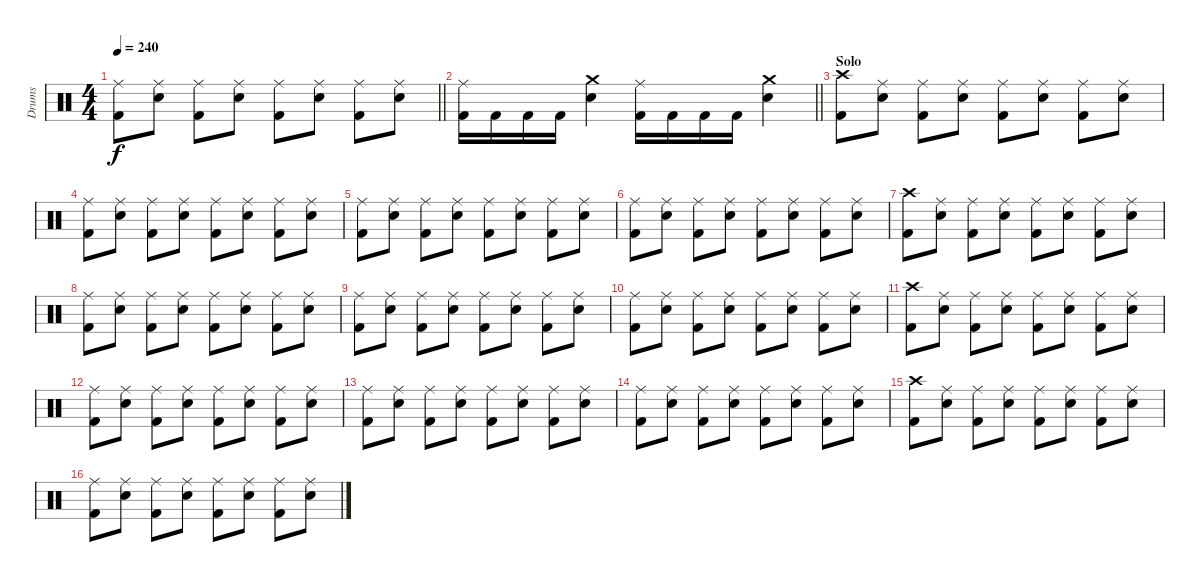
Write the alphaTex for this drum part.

\track ("Drums" "Drums") {instrument percussion}
\staff {score}
\articulation defaults
\ts (4 4)
\tempo 240
\clef neutral
\barLineRight lightlight
\ks c
("Ride (middle)" "Kick (hit) 2").8{dy f} ("Ride (middle)" "Snare (hit) 2").8 ("Ride (middle)" "Kick (hit) 2").8 ("Ride (middle)" "Snare (hit) 2").8 ("Ride (middle)" "Kick (hit) 2").8 ("Ride (middle)" "Snare (hit) 2").8 ("Ride (middle)" "Kick (hit) 2").8 ("Ride (middle)" "Snare (hit) 2").8 |
\section ("" "")
\barLineRight lightlight
("Ride (middle)" "Kick (hit) 2").16 "Kick (hit) 2".16 "Kick (hit) 2".16 "Kick (hit) 2".16 ("Crash medium (hit)" "Snare (hit) 2").4 ("Ride (middle)" "Kick (hit) 2").16 "Kick (hit) 2".16 "Kick (hit) 2".16 "Kick (hit) 2".16 ("Crash medium (hit)" "Snare (hit) 2").4 |
\section ("" "Solo")
("Crash high (hit)" "Kick (hit) 2").8 ("Ride (middle)" "Snare (hit) 2").8 ("Ride (middle)" "Kick (hit) 2").8 ("Ride (middle)" "Snare (hit) 2").8 ("Ride (middle)" "Kick (hit) 2").8 ("Ride (middle)" "Snare (hit) 2").8 ("Ride (middle)" "Kick (hit) 2").8 ("Ride (middle)" "Snare (hit) 2").8 |
("Ride (middle)" "Kick (hit) 2").8 ("Ride (middle)" "Snare (hit) 2").8 ("Ride (middle)" "Kick (hit) 2").8 ("Ride (middle)" "Snare (hit) 2").8 ("Ride (middle)" "Kick (hit) 2").8 ("Ride (middle)" "Snare (hit) 2").8 ("Ride (middle)" "Kick (hit) 2").8 ("Ride (middle)" "Snare (hit) 2").8 |
("Ride (middle)" "Kick (hit) 2").8 ("Ride (middle)" "Snare (hit) 2").8 ("Ride (middle)" "Kick (hit) 2").8 ("Ride (middle)" "Snare (hit) 2").8 ("Ride (middle)" "Kick (hit) 2").8 ("Ride (middle)" "Snare (hit) 2").8 ("Ride (middle)" "Kick (hit) 2").8 ("Ride (middle)" "Snare (hit) 2").8 |
("Ride (middle)" "Kick (hit) 2").8 ("Ride (middle)" "Snare (hit) 2").8 ("Ride (middle)" "Kick (hit) 2").8 ("Ride (middle)" "Snare (hit) 2").8 ("Ride (middle)" "Kick (hit) 2").8 ("Ride (middle)" "Snare (hit) 2").8 ("Ride (middle)" "Kick (hit) 2").8 ("Ride (middle)" "Snare (hit) 2").8 |
("Crash high (hit)" "Kick (hit) 2").8 ("Ride (middle)" "Snare (hit) 2").8 ("Ride (middle)" "Kick (hit) 2").8 ("Ride (middle)" "Snare (hit) 2").8 ("Ride (middle)" "Kick (hit) 2").8 ("Ride (middle)" "Snare (hit) 2").8 ("Ride (middle)" "Kick (hit) 2").8 ("Ride (middle)" "Snare (hit) 2").8 |
("Ride (middle)" "Kick (hit) 2").8 ("Ride (middle)" "Snare (hit) 2").8 ("Ride (middle)" "Kick (hit) 2").8 ("Ride (middle)" "Snare (hit) 2").8 ("Ride (middle)" "Kick (hit) 2").8 ("Ride (middle)" "Snare (hit) 2").8 ("Ride (middle)" "Kick (hit) 2").8 ("Ride (middle)" "Snare (hit) 2").8 |
("Ride (middle)" "Kick (hit) 2").8 ("Ride (middle)" "Snare (hit) 2").8 ("Ride (middle)" "Kick (hit) 2").8 ("Ride (middle)" "Snare (hit) 2").8 ("Ride (middle)" "Kick (hit) 2").8 ("Ride (middle)" "Snare (hit) 2").8 ("Ride (middle)" "Kick (hit) 2").8 ("Ride (middle)" "Snare (hit) 2").8 |
("Ride (middle)" "Kick (hit) 2").8 ("Ride (middle)" "Snare (hit) 2").8 ("Ride (middle)" "Kick (hit) 2").8 ("Ride (middle)" "Snare (hit) 2").8 ("Ride (middle)" "Kick (hit) 2").8 ("Ride (middle)" "Snare (hit) 2").8 ("Ride (middle)" "Kick (hit) 2").8 ("Ride (middle)" "Snare (hit) 2").8 |
("Crash high (hit)" "Kick (hit) 2").8 ("Ride (middle)" "Snare (hit) 2").8 ("Ride (middle)" "Kick (hit) 2").8 ("Ride (middle)" "Snare (hit) 2").8 ("Ride (middle)" "Kick (hit) 2").8 ("Ride (middle)" "Snare (hit) 2").8 ("Ride (middle)" "Kick (hit) 2").8 ("Ride (middle)" "Snare (hit) 2").8 |
("Ride (middle)" "Kick (hit) 2").8 ("Ride (middle)" "Snare (hit) 2").8 ("Ride (middle)" "Kick (hit) 2").8 ("Ride (middle)" "Snare (hit) 2").8 ("Ride (middle)" "Kick (hit) 2").8 ("Ride (middle)" "Snare (hit) 2").8 ("Ride (middle)" "Kick (hit) 2").8 ("Ride (middle)" "Snare (hit) 2").8 |
("Ride (middle)" "Kick (hit) 2").8 ("Ride (middle)" "Snare (hit) 2").8 ("Ride (middle)" "Kick (hit) 2").8 ("Ride (middle)" "Snare (hit) 2").8 ("Ride (middle)" "Kick (hit) 2").8 ("Ride (middle)" "Snare (hit) 2").8 ("Ride (middle)" "Kick (hit) 2").8 ("Ride (middle)" "Snare (hit) 2").8 |
("Ride (middle)" "Kick (hit) 2").8 ("Ride (middle)" "Snare (hit) 2").8 ("Ride (middle)" "Kick (hit) 2").8 ("Ride (middle)" "Snare (hit) 2").8 ("Ride (middle)" "Kick (hit) 2").8 ("Ride (middle)" "Snare (hit) 2").8 ("Ride (middle)" "Kick (hit) 2").8 ("Ride (middle)" "Snare (hit) 2").8 |
("Crash high (hit)" "Kick (hit) 2").8 ("Ride (middle)" "Snare (hit) 2").8 ("Ride (middle)" "Kick (hit) 2").8 ("Ride (middle)" "Snare (hit) 2").8 ("Ride (middle)" "Kick (hit) 2").8 ("Ride (middle)" "Snare (hit) 2").8 ("Ride (middle)" "Kick (hit) 2").8 ("Ride (middle)" "Snare (hit) 2").8 |
("Ride (middle)" "Kick (hit) 2").8 ("Ride (middle)" "Snare (hit) 2").8 ("Ride (middle)" "Kick (hit) 2").8 ("Ride (middle)" "Snare (hit) 2").8 ("Ride (middle)" "Kick (hit) 2").8 ("Ride (middle)" "Snare (hit) 2").8 ("Ride (middle)" "Kick (hit) 2").8 ("Ride (middle)" "Snare (hit) 2").8
